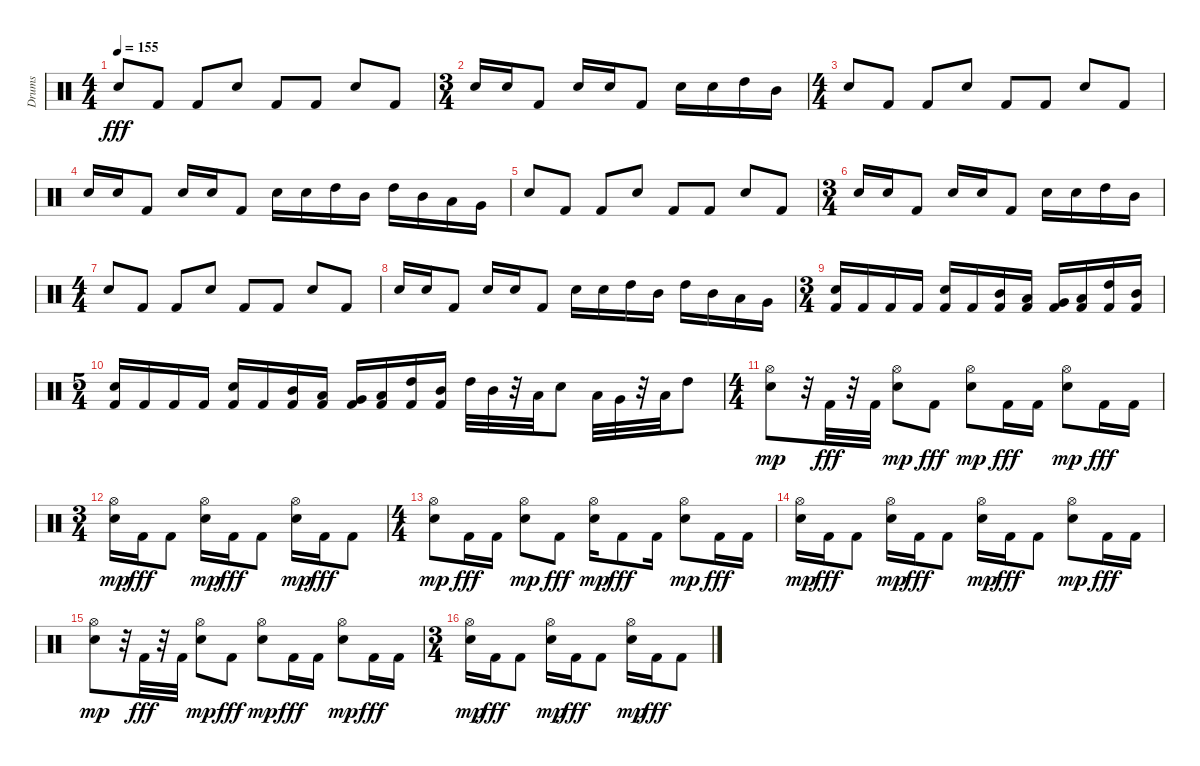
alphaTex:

\track ("Drums" "Drums") {instrument percussion}
\staff {score}
\articulation defaults
\ts (4 4)
\tempo 155
\clef neutral
\ks c "Electric Snare (hit)".8{dy fff} "Kick (hit) 2".8 "Kick (hit) 2".8 "Electric Snare (hit)".8 "Kick (hit) 2".8 "Kick (hit) 2".8 "Electric Snare (hit)".8 "Kick (hit) 2".8
|
\ts (3 4)
"Electric Snare (hit)".16 "Electric Snare (hit)".16 "Kick (hit) 2".8 "Electric Snare (hit)".16 "Electric Snare (hit)".16 "Kick (hit) 2".8 "Electric Snare (hit)".16 "Electric Snare (hit)".16 "High Tom (hit)".16 "Mid Tom (hit)".16 |
\ts (4 4)
"Electric Snare (hit)".8 "Kick (hit) 2".8 "Kick (hit) 2".8 "Electric Snare (hit)".8 "Kick (hit) 2".8 "Kick (hit) 2".8 "Electric Snare (hit)".8 "Kick (hit) 2".8 |
"Electric Snare (hit)".16 "Electric Snare (hit)".16 "Kick (hit) 2".8 "Electric Snare (hit)".16 "Electric Snare (hit)".16 "Kick (hit) 2".8 "Electric Snare (hit)".16 "Electric Snare (hit)".16 "High Tom (hit)".16 "Mid Tom (hit)".16 "High Tom (hit)".16 "Mid Tom (hit)".16 "Low Tom (hit)".16 "Very Low Tom (hit)".16 |
"Electric Snare (hit)".8 "Kick (hit) 2".8 "Kick (hit) 2".8 "Electric Snare (hit)".8 "Kick (hit) 2".8 "Kick (hit) 2".8 "Electric Snare (hit)".8 "Kick (hit) 2".8 |
\ts (3 4)
"Electric Snare (hit)".16 "Electric Snare (hit)".16 "Kick (hit) 2".8 "Electric Snare (hit)".16 "Electric Snare (hit)".16 "Kick (hit) 2".8 "Electric Snare (hit)".16 "Electric Snare (hit)".16 "High Tom (hit)".16 "Mid Tom (hit)".16 |
\ts (4 4)
"Electric Snare (hit)".8 "Kick (hit) 2".8 "Kick (hit) 2".8 "Electric Snare (hit)".8 "Kick (hit) 2".8 "Kick (hit) 2".8 "Electric Snare (hit)".8 "Kick (hit) 2".8 |
"Electric Snare (hit)".16 "Electric Snare (hit)".16 "Kick (hit) 2".8 "Electric Snare (hit)".16 "Electric Snare (hit)".16 "Kick (hit) 2".8 "Electric Snare (hit)".16 "Electric Snare (hit)".16 "High Tom (hit)".16 "Mid Tom (hit)".16 "High Tom (hit)".16 "Mid Tom (hit)".16 "Low Tom (hit)".16 "Very Low Tom (hit)".16 |
\ts (3 4)
("Electric Snare (hit)" "Kick (hit) 2").16 "Kick (hit) 2".16 "Kick (hit) 2".16 "Kick (hit) 2".16 ("Electric Snare (hit)" "Kick (hit) 2").16 "Kick (hit) 2".16 ("Mid Tom (hit)" "Kick (hit) 2").16 ("Low Tom (hit)" "Kick (hit) 2").16 ("Very Low Tom (hit)" "Kick (hit) 2").16 ("Low Floor Tom (hit)" "Kick (hit) 2").16 ("High Tom (hit)" "Kick (hit) 2").16 ("Mid Tom (hit)" "Kick (hit) 2").16 |
\ts (5 4)
("Electric Snare (hit)" "Kick (hit) 2").16 "Kick (hit) 2".16 "Kick (hit) 2".16 "Kick (hit) 2".16 ("Electric Snare (hit)" "Kick (hit) 2").16 "Kick (hit) 2".16 ("Mid Tom (hit)" "Kick (hit) 2").16 ("Low Tom (hit)" "Kick (hit) 2").16 ("Very Low Tom (hit)" "Kick (hit) 2").16 ("Low Floor Tom (hit)" "Kick (hit) 2").16 ("High Tom (hit)" "Kick (hit) 2").16 ("Mid Tom (hit)" "Kick (hit) 2").16 "High Tom (hit)".32 "Mid Tom (hit)".32 r.32 "Low Tom (hit)".32 "Electric Snare (hit)".8 "Low Tom (hit)".32 "Very Low Tom (hit)".32 r.32 "Low Floor Tom (hit)".32 "High Tom (hit)".8 |
\ts (4 4)
("Electric Snare (hit)" "Hi-Hat (open)").8{dy mp} r.32 "Kick (hit) 2".32{dy fff} r.32 "Kick (hit) 2".32 ("Electric Snare (hit)" "Hi-Hat (open)").8{dy mp} "Kick (hit) 2".8{dy fff} ("Electric Snare (hit)" "Hi-Hat (open)").8{dy mp} "Kick (hit) 2".16{dy fff} "Kick (hit) 2".16 ("Electric Snare (hit)" "Hi-Hat (open)").8{dy mp} "Kick (hit) 2".16{dy fff} "Kick (hit) 2".16 |
\ts (3 4)
("Electric Snare (hit)" "Hi-Hat (open)").16{dy mp} "Kick (hit) 2".16{dy fff} "Kick (hit) 2".8 ("Electric Snare (hit)" "Hi-Hat (open)").16{dy mp} "Kick (hit) 2".16{dy fff} "Kick (hit) 2".8 ("Electric Snare (hit)" "Hi-Hat (open)").16{dy mp} "Kick (hit) 2".16{dy fff} "Kick (hit) 2".8 |
\ts (4 4)
("Electric Snare (hit)" "Hi-Hat (open)").8{dy mp} "Kick (hit) 2".16{dy fff} "Kick (hit) 2".16 ("Electric Snare (hit)" "Hi-Hat (open)").8{dy mp} "Kick (hit) 2".8{dy fff} ("Electric Snare (hit)" "Hi-Hat (open)").16{dy mp} "Kick (hit) 2".8{dy fff} "Kick (hit) 2".16 ("Electric Snare (hit)" "Hi-Hat (open)").8{dy mp} "Kick (hit) 2".16{dy fff} "Kick (hit) 2".16 |
("Electric Snare (hit)" "Hi-Hat (open)").16{dy mp} "Kick (hit) 2".16{dy fff} "Kick (hit) 2".8 ("Electric Snare (hit)" "Hi-Hat (open)").16{dy mp} "Kick (hit) 2".16{dy fff} "Kick (hit) 2".8 ("Electric Snare (hit)" "Hi-Hat (open)").16{dy mp} "Kick (hit) 2".16{dy fff} "Kick (hit) 2".8 ("Electric Snare (hit)" "Hi-Hat (open)").8{dy mp} "Kick (hit) 2".16{dy fff} "Kick (hit) 2".16 |
("Electric Snare (hit)" "Hi-Hat (open)").8{dy mp} r.32 "Kick (hit) 2".32{dy fff} r.32 "Kick (hit) 2".32 ("Electric Snare (hit)" "Hi-Hat (open)").8{dy mp} "Kick (hit) 2".8{dy fff} ("Electric Snare (hit)" "Hi-Hat (open)").8{dy mp} "Kick (hit) 2".16{dy fff} "Kick (hit) 2".16 ("Electric Snare (hit)" "Hi-Hat (open)").8{dy mp} "Kick (hit) 2".16{dy fff} "Kick (hit) 2".16 |
\ts (3 4)
("Electric Snare (hit)" "Hi-Hat (open)").16{dy mp} "Kick (hit) 2".16{dy fff} "Kick (hit) 2".8 ("Electric Snare (hit)" "Hi-Hat (open)").16{dy mp} "Kick (hit) 2".16{dy fff} "Kick (hit) 2".8 ("Electric Snare (hit)" "Hi-Hat (open)").16{dy mp} "Kick (hit) 2".16{dy fff} "Kick (hit) 2".8
